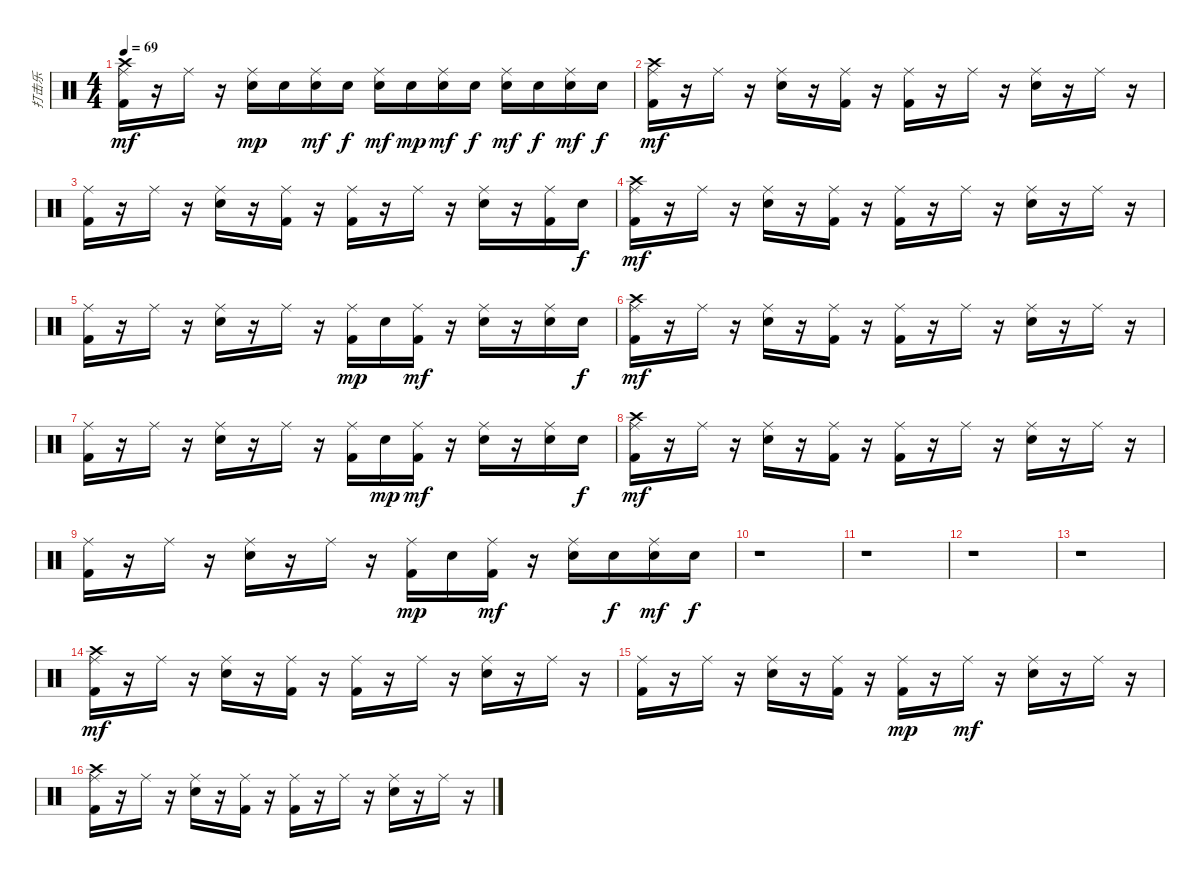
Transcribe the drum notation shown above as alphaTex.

\track ("打击乐" "打击乐") {instrument percussion}
\staff {score}
\articulation defaults
\ts (4 4)
\tempo 69
\clef neutral
\ks c
("Crash high (hit)" "Ride (middle)" "Kick (hit) 2").16{dy mf} r.16 "Ride (middle)".16 r.16 ("Ride (middle)" "Electric Snare (hit)").16{dy mp} "Electric Snare (hit)".16 ("Electric Snare (hit)" "Ride (middle)").16{dy mf} "Electric Snare (hit)".16{dy f} ("Electric Snare (hit)" "Ride (middle)").16{dy mf} "Electric Snare (hit)".16{dy mp} ("Electric Snare (hit)" "Ride (middle)").16{dy mf} "Electric Snare (hit)".16{dy f} ("Electric Snare (hit)" "Ride (middle)").16{dy mf} "Electric Snare (hit)".16{dy f} ("Electric Snare (hit)" "Ride (middle)").16{dy mf} "Electric Snare (hit)".16{dy f} |
("Ride (middle)" "Kick (hit) 2" "Crash high (hit)").16{dy mf} r.16 "Ride (middle)".16 r.16 ("Electric Snare (hit)" "Ride (middle)").16 r.16 ("Ride (middle)" "Kick (hit) 2").16 r.16 ("Ride (middle)" "Kick (hit) 2").16 r.16 "Ride (middle)".16 r.16 ("Electric Snare (hit)" "Ride (middle)").16 r.16 "Ride (middle)".16 r.16 |
("Ride (middle)" "Kick (hit) 2").16 r.16 "Ride (middle)".16 r.16 ("Ride (middle)" "Electric Snare (hit)").16 r.16 ("Kick (hit) 2" "Ride (middle)").16 r.16 ("Kick (hit) 2" "Ride (middle)").16 r.16 "Ride (middle)".16 r.16 ("Electric Snare (hit)" "Ride (middle)").16 r.16 ("Kick (hit) 2" "Ride (middle)").16 "Electric Snare (hit)".16{dy f} |
("Crash high (hit)" "Ride (middle)" "Kick (hit) 2").16{dy mf} r.16 "Ride (middle)".16 r.16 ("Electric Snare (hit)" "Ride (middle)").16 r.16 ("Kick (hit) 2" "Ride (middle)").16 r.16 ("Kick (hit) 2" "Ride (middle)").16 r.16 "Ride (middle)".16 r.16 ("Electric Snare (hit)" "Ride (middle)").16 r.16 "Ride (middle)".16 r.16 |
("Kick (hit) 2" "Ride (middle)").16 r.16 "Ride (middle)".16 r.16 ("Electric Snare (hit)" "Ride (middle)").16 r.16 "Ride (middle)".16 r.16 ("Ride (middle)" "Kick (hit) 2").16{dy mp} "Electric Snare (hit)".16 ("Kick (hit) 2" "Ride (middle)").16{dy mf} r.16 ("Electric Snare (hit)" "Ride (middle)").16 r.16 ("Electric Snare (hit)" "Ride (middle)").16 "Electric Snare (hit)".16{dy f} |
("Ride (middle)" "Kick (hit) 2" "Crash high (hit)").16{dy mf} r.16 "Ride (middle)".16 r.16 ("Electric Snare (hit)" "Ride (middle)").16 r.16 ("Ride (middle)" "Kick (hit) 2").16 r.16 ("Ride (middle)" "Kick (hit) 2").16 r.16 "Ride (middle)".16 r.16 ("Electric Snare (hit)" "Ride (middle)").16 r.16 "Ride (middle)".16 r.16 |
("Ride (middle)" "Kick (hit) 2").16 r.16 "Ride (middle)".16 r.16 ("Ride (middle)" "Electric Snare (hit)").16 r.16 "Ride (middle)".16 r.16 ("Kick (hit) 2" "Ride (middle)").16 "Electric Snare (hit)".16{dy mp} ("Kick (hit) 2" "Ride (middle)").16{dy mf} r.16 ("Ride (middle)" "Electric Snare (hit)").16 r.16 ("Ride (middle)" "Electric Snare (hit)").16 "Electric Snare (hit)".16{dy f} |
("Crash high (hit)" "Ride (middle)" "Kick (hit) 2").16{dy mf} r.16 "Ride (middle)".16 r.16 ("Electric Snare (hit)" "Ride (middle)").16 r.16 ("Kick (hit) 2" "Ride (middle)").16 r.16 ("Kick (hit) 2" "Ride (middle)").16 r.16 "Ride (middle)".16 r.16 ("Electric Snare (hit)" "Ride (middle)").16 r.16 "Ride (middle)".16 r.16 |
("Kick (hit) 2" "Ride (middle)").16 r.16 "Ride (middle)".16 r.16 ("Electric Snare (hit)" "Ride (middle)").16 r.16 "Ride (middle)".16 r.16 ("Ride (middle)" "Kick (hit) 2").16{dy mp} "Electric Snare (hit)".16 ("Kick (hit) 2" "Ride (middle)").16{dy mf} r.16 ("Electric Snare (hit)" "Ride (middle)").16 "Electric Snare (hit)".16{dy f} ("Electric Snare (hit)" "Ride (middle)").16{dy mf} "Electric Snare (hit)".16{dy f} |
r.1 |
r.1 |
r.1 |
r.1 |
("Crash high (hit)" "Kick (hit) 2" "Ride (middle)").16{dy mf} r.16 "Ride (middle)".16 r.16 ("Electric Snare (hit)" "Ride (middle)").16 r.16 ("Ride (middle)" "Kick (hit) 2").16 r.16 ("Kick (hit) 2" "Ride (middle)").16 r.16 "Ride (middle)".16 r.16 ("Ride (middle)" "Electric Snare (hit)").16 r.16 "Ride (middle)".16 r.16 |
("Kick (hit) 2" "Ride (middle)").16 r.16 "Ride (middle)".16 r.16 ("Ride (middle)" "Electric Snare (hit)").16 r.16 ("Ride (middle)" "Kick (hit) 2").16 r.16 ("Ride (middle)" "Kick (hit) 2").16{dy mp} r.16 "Ride (middle)".16{dy mf} r.16 ("Electric Snare (hit)" "Ride (middle)").16 r.16 "Ride (middle)".16 r.16 |
("Ride (middle)" "Crash high (hit)" "Kick (hit) 2").16 r.16 "Ride (middle)".16 r.16 ("Ride (middle)" "Electric Snare (hit)").16 r.16 ("Ride (middle)" "Kick (hit) 2").16 r.16 ("Ride (middle)" "Kick (hit) 2").16 r.16 "Ride (middle)".16 r.16 ("Electric Snare (hit)" "Ride (middle)").16 r.16 "Ride (middle)".16 r.16
